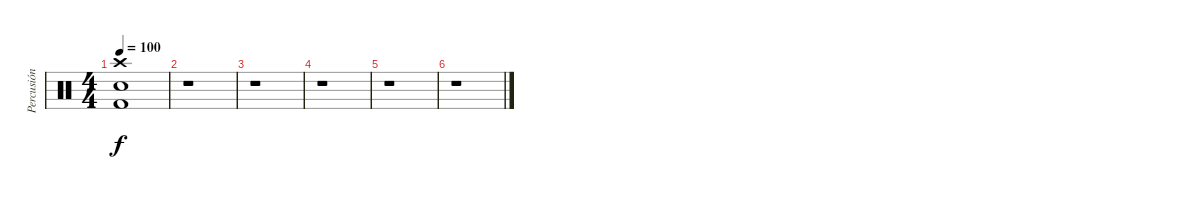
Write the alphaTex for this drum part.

\track ("Percusión" "Percusión") {instrument percussion}
\staff {score}
\articulation defaults
\ts (4 4)
\tempo 100
\clef neutral
\ks c
("Crash high (hit)" "Electric Snare (hit)" "Kick (hit) 2").1{dy f} |
r.1 |
r.1 |
r.1 |
r.1 |
r.1
